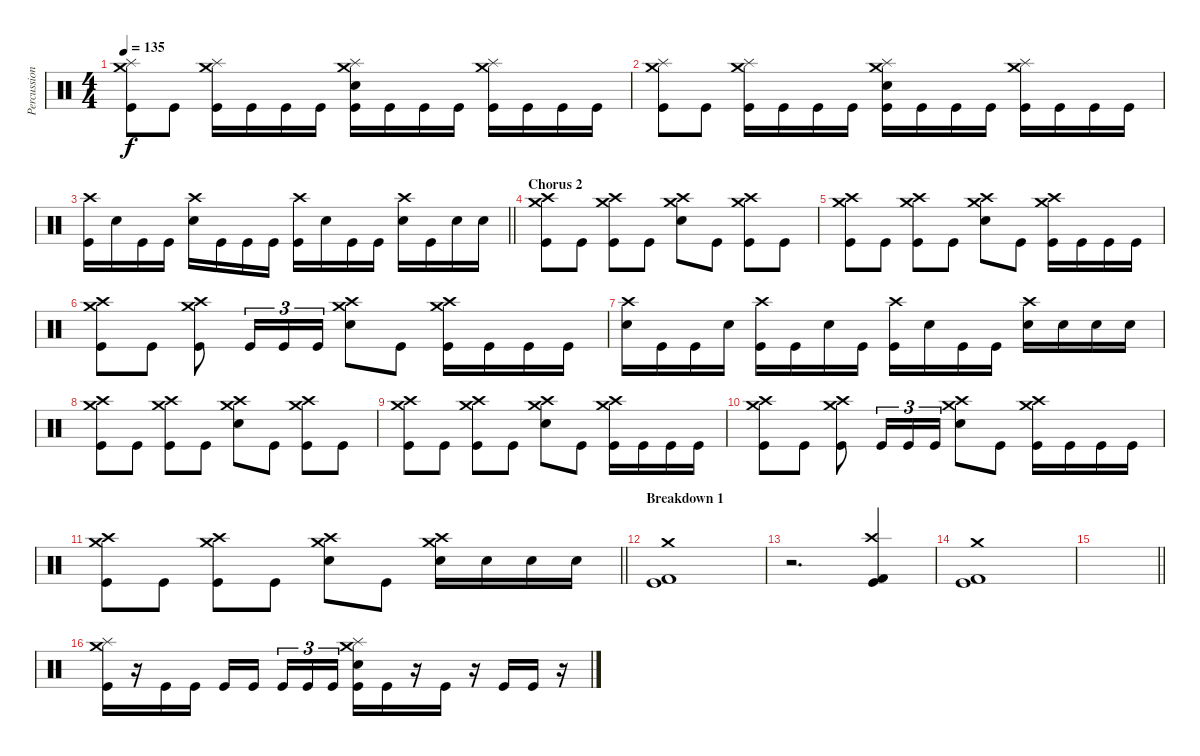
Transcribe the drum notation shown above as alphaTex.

\track ("Percussion (Approx.)" "Percussion") {instrument percussion}
\staff {score}
\articulation defaults
\ts (4 4)
\tempo 135
\clef neutral
\ks c
("Crash medium (hit)" "Splash (hit)" "Kick (hit)").8{dy f} "Kick (hit)".8 ("Crash medium (hit)" "Splash (hit)" "Kick (hit)").16 "Kick (hit)".16 "Kick (hit)".16 "Kick (hit)".16 ("Crash medium (hit)" "Splash (hit)" "Electric Snare (hit)" "Kick (hit)").16 "Kick (hit)".16 "Kick (hit)".16 "Kick (hit)".16 ("Crash medium (hit)" "Splash (hit)" "Kick (hit)").16 "Kick (hit)".16 "Kick (hit)".16 "Kick (hit)".16 |
("Crash medium (hit)" "Splash (hit)" "Kick (hit)").8 "Kick (hit)".8 ("Crash medium (hit)" "Splash (hit)" "Kick (hit)").16 "Kick (hit)".16 "Kick (hit)".16 "Kick (hit)".16 ("Crash medium (hit)" "Splash (hit)" "Electric Snare (hit)" "Kick (hit)").16 "Kick (hit)".16 "Kick (hit)".16 "Kick (hit)".16 ("Crash medium (hit)" "Splash (hit)" "Kick (hit)").16 "Kick (hit)".16 "Kick (hit)".16 "Kick (hit)".16 |
\barLineRight lightlight
("Crash high (hit)" "Kick (hit)").16 "Electric Snare (hit)".16 "Kick (hit)".16 "Kick (hit)".16 ("Crash high (hit)" "Electric Snare (hit)").16 "Kick (hit)".16 "Kick (hit)".16 "Kick (hit)".16 ("Crash high (hit)" "Kick (hit)").16 "Electric Snare (hit)".16 "Kick (hit)".16 "Kick (hit)".16 ("Crash high (hit)" "Electric Snare (hit)").16 "Kick (hit)".16 "Electric Snare (hit)".16 "Electric Snare (hit)".16 |
\section ("" "Chorus 2")
("Crash medium (hit)" "Crash high (hit)" "Kick (hit)").8 "Kick (hit)".8 ("Crash medium (hit)" "Crash high (hit)" "Kick (hit)").8 "Kick (hit)".8 ("Crash medium (hit)" "Crash high (hit)" "Electric Snare (hit)").8 "Kick (hit)".8 ("Crash medium (hit)" "Crash high (hit)" "Kick (hit)").8 "Kick (hit)".8 |
("Crash medium (hit)" "Crash high (hit)" "Kick (hit)").8 "Kick (hit)".8 ("Crash medium (hit)" "Crash high (hit)" "Kick (hit)").8 "Kick (hit)".8 ("Crash medium (hit)" "Crash high (hit)" "Electric Snare (hit)").8 "Kick (hit)".8 ("Crash medium (hit)" "Crash high (hit)" "Kick (hit)").16 "Kick (hit)".16 "Kick (hit)".16 "Kick (hit)".16 |
("Crash medium (hit)" "Crash high (hit)" "Kick (hit)").8 "Kick (hit)".8 ("Crash medium (hit)" "Crash high (hit)" "Kick (hit)").8 "Kick (hit)".16{tu (3 2)} "Kick (hit)".16{tu (3 2)} "Kick (hit)".16{tu (3 2)} ("Crash medium (hit)" "Crash high (hit)" "Electric Snare (hit)").8 "Kick (hit)".8 ("Crash medium (hit)" "Crash high (hit)" "Kick (hit)").16 "Kick (hit)".16 "Kick (hit)".16 "Kick (hit)".16 |
("Crash high (hit)" "Electric Snare (hit)").16 "Kick (hit)".16 "Kick (hit)".16 "Electric Snare (hit)".16 ("Crash high (hit)" "Kick (hit)").16 "Kick (hit)".16 "Electric Snare (hit)".16 "Kick (hit)".16 ("Crash high (hit)" "Kick (hit)").16 "Electric Snare (hit)".16 "Kick (hit)".16 "Kick (hit)".16 ("Crash high (hit)" "Electric Snare (hit)").16 "Electric Snare (hit)".16 "Electric Snare (hit)".16 "Electric Snare (hit)".16 |
("Crash medium (hit)" "Crash high (hit)" "Kick (hit)").8 "Kick (hit)".8 ("Crash medium (hit)" "Crash high (hit)" "Kick (hit)").8 "Kick (hit)".8 ("Crash medium (hit)" "Crash high (hit)" "Electric Snare (hit)").8 "Kick (hit)".8 ("Crash medium (hit)" "Crash high (hit)" "Kick (hit)").8 "Kick (hit)".8 |
("Crash medium (hit)" "Crash high (hit)" "Kick (hit)").8 "Kick (hit)".8 ("Crash medium (hit)" "Crash high (hit)" "Kick (hit)").8 "Kick (hit)".8 ("Crash medium (hit)" "Crash high (hit)" "Electric Snare (hit)").8 "Kick (hit)".8 ("Crash medium (hit)" "Crash high (hit)" "Kick (hit)").16 "Kick (hit)".16 "Kick (hit)".16 "Kick (hit)".16 |
("Crash medium (hit)" "Crash high (hit)" "Kick (hit)").8 "Kick (hit)".8 ("Crash medium (hit)" "Crash high (hit)" "Kick (hit)").8 "Kick (hit)".16{tu (3 2)} "Kick (hit)".16{tu (3 2)} "Kick (hit)".16{tu (3 2)} ("Crash medium (hit)" "Crash high (hit)" "Electric Snare (hit)").8 "Kick (hit)".8 ("Crash medium (hit)" "Crash high (hit)" "Kick (hit)").16 "Kick (hit)".16 "Kick (hit)".16 "Kick (hit)".16 |
\barLineRight lightlight
("Crash medium (hit)" "Crash high (hit)" "Kick (hit)").8 "Kick (hit)".8 ("Crash medium (hit)" "Crash high (hit)" "Kick (hit)").8 "Kick (hit)".8 ("Crash medium (hit)" "Crash high (hit)" "Electric Snare (hit)").8 "Kick (hit)".8 ("Crash medium (hit)" "Crash high (hit)" "Electric Snare (hit)").16 "Electric Snare (hit)".16 "Electric Snare (hit)".16 "Electric Snare (hit)".16 |
\section ("" "Breakdown 1")
("Crash medium (hit)" "Kick (hit) 2" "Kick (hit)").1 |
r.2{d} ("Crash high (hit)" "Kick (hit) 2" "Kick (hit)").4 |
("Crash medium (hit)" "Kick (hit) 2" "Kick (hit)").1 |
\barLineRight lightlight
|
\section ("" "")
("Crash medium (hit)" "Splash (hit)" "Kick (hit)").16 r.16 "Kick (hit)".16 "Kick (hit)".16 "Kick (hit)".16 "Kick (hit)".16{beam splitsecondary} "Kick (hit)".16{tu (3 2)} "Kick (hit)".16{tu (3 2)} "Kick (hit)".16{tu (3 2)} ("Crash medium (hit)" "Splash (hit)" "Electric Snare (hit)" "Kick (hit)").16 "Kick (hit)".16 r.16 "Kick (hit)".16 r.16 "Kick (hit)".16 "Kick (hit)".16 r.16
